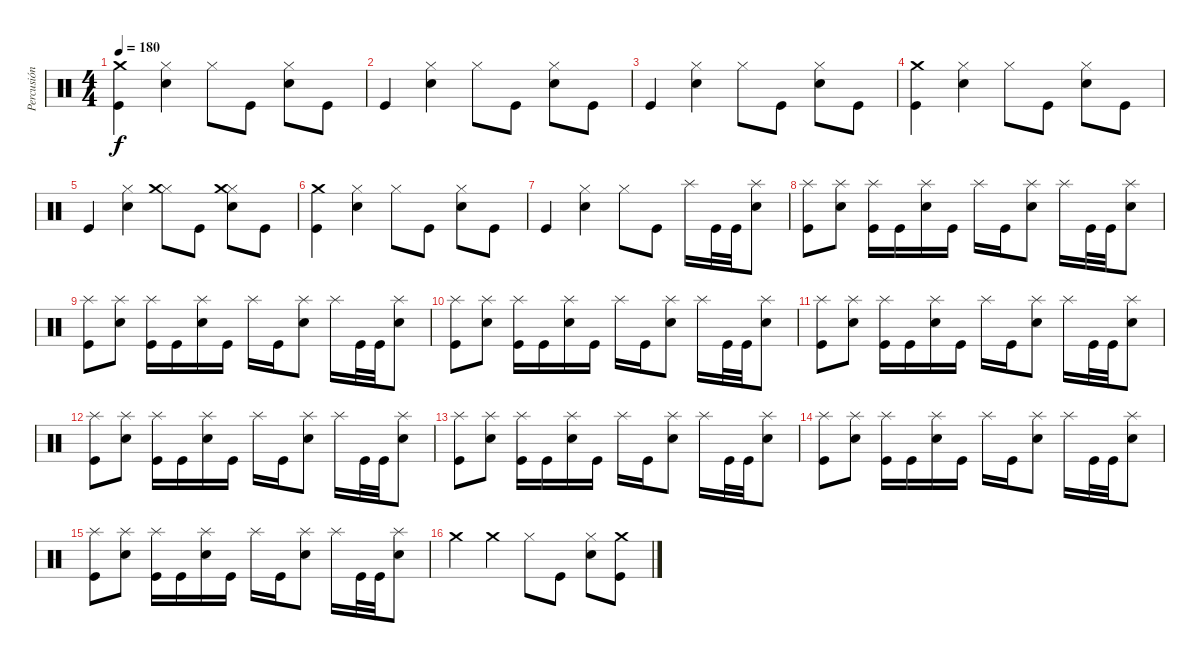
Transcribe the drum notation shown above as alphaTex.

\track ("Percusión" "Percusión") {instrument percussion}
\staff {score}
\articulation defaults
\ts (4 4)
\tempo 180
\clef neutral
\ks c
("Kick (hit)" "Crash medium (hit)").4{dy f} ("Snare (hit) 2" "Hi-Hat (closed)").4 "Hi-Hat (closed)".8 "Kick (hit)".8 ("Snare (hit) 2" "Hi-Hat (closed)").8 "Kick (hit)".8 |
"Kick (hit)".4 ("Snare (hit) 2" "Hi-Hat (closed)").4 "Hi-Hat (closed)".8 "Kick (hit)".8 ("Snare (hit) 2" "Hi-Hat (closed)").8 "Kick (hit)".8 |
"Kick (hit)".4 ("Snare (hit) 2" "Hi-Hat (closed)").4 "Hi-Hat (closed)".8 "Kick (hit)".8 ("Snare (hit) 2" "Hi-Hat (closed)").8 "Kick (hit)".8 |
("Kick (hit)" "Crash medium (hit)").4 ("Snare (hit) 2" "Hi-Hat (closed)").4 "Hi-Hat (closed)".8 "Kick (hit)".8 ("Snare (hit) 2" "Hi-Hat (closed)").8 "Kick (hit)".8 |
"Kick (hit)".4 ("Snare (hit) 2" "Hi-Hat (closed)").4 ("Hi-Hat (closed)" "Crash medium (hit)").8 "Kick (hit)".8 ("Snare (hit) 2" "Hi-Hat (closed)" "Crash medium (hit)").8 "Kick (hit)".8 |
("Kick (hit)" "Crash medium (hit)").4 ("Snare (hit) 2" "Hi-Hat (closed)").4 "Hi-Hat (closed)".8 "Kick (hit)".8 ("Snare (hit) 2" "Hi-Hat (closed)").8 "Kick (hit)".8 |
"Kick (hit)".4 ("Snare (hit) 2" "Hi-Hat (closed)").4 "Hi-Hat (closed)".8 "Kick (hit)".8 "Splash (hit)".16 "Kick (hit)".32 "Kick (hit)".32 ("Splash (hit)" "Electric Snare (hit)").8 |
("Splash (hit)" "Kick (hit)").8 ("Splash (hit)" "Electric Snare (hit)").8 ("Splash (hit)" "Kick (hit)").16 "Kick (hit)".16 ("Splash (hit)" "Electric Snare (hit)").16 "Kick (hit)".16 "Splash (hit)".16 "Kick (hit)".16 ("Splash (hit)" "Electric Snare (hit)").8 "Splash (hit)".16 "Kick (hit)".32 "Kick (hit)".32 ("Splash (hit)" "Electric Snare (hit)").8 |
("Splash (hit)" "Kick (hit)").8 ("Splash (hit)" "Electric Snare (hit)").8 ("Splash (hit)" "Kick (hit)").16 "Kick (hit)".16 ("Splash (hit)" "Electric Snare (hit)").16 "Kick (hit)".16 "Splash (hit)".16 "Kick (hit)".16 ("Splash (hit)" "Electric Snare (hit)").8 "Splash (hit)".16 "Kick (hit)".32 "Kick (hit)".32 ("Splash (hit)" "Electric Snare (hit)").8 |
("Splash (hit)" "Kick (hit)").8 ("Splash (hit)" "Electric Snare (hit)").8 ("Splash (hit)" "Kick (hit)").16 "Kick (hit)".16 ("Splash (hit)" "Electric Snare (hit)").16 "Kick (hit)".16 "Splash (hit)".16 "Kick (hit)".16 ("Splash (hit)" "Electric Snare (hit)").8 "Splash (hit)".16 "Kick (hit)".32 "Kick (hit)".32 ("Splash (hit)" "Electric Snare (hit)").8 |
("Splash (hit)" "Kick (hit)").8 ("Splash (hit)" "Electric Snare (hit)").8 ("Splash (hit)" "Kick (hit)").16 "Kick (hit)".16 ("Splash (hit)" "Electric Snare (hit)").16 "Kick (hit)".16 "Splash (hit)".16 "Kick (hit)".16 ("Splash (hit)" "Electric Snare (hit)").8 "Splash (hit)".16 "Kick (hit)".32 "Kick (hit)".32 ("Splash (hit)" "Electric Snare (hit)").8 |
("Splash (hit)" "Kick (hit)").8 ("Splash (hit)" "Electric Snare (hit)").8 ("Splash (hit)" "Kick (hit)").16 "Kick (hit)".16 ("Splash (hit)" "Electric Snare (hit)").16 "Kick (hit)".16 "Splash (hit)".16 "Kick (hit)".16 ("Splash (hit)" "Electric Snare (hit)").8 "Splash (hit)".16 "Kick (hit)".32 "Kick (hit)".32 ("Splash (hit)" "Electric Snare (hit)").8 |
("Splash (hit)" "Kick (hit)").8 ("Splash (hit)" "Electric Snare (hit)").8 ("Splash (hit)" "Kick (hit)").16 "Kick (hit)".16 ("Splash (hit)" "Electric Snare (hit)").16 "Kick (hit)".16 "Splash (hit)".16 "Kick (hit)".16 ("Splash (hit)" "Electric Snare (hit)").8 "Splash (hit)".16 "Kick (hit)".32 "Kick (hit)".32 ("Splash (hit)" "Electric Snare (hit)").8 |
("Splash (hit)" "Kick (hit)").8 ("Splash (hit)" "Electric Snare (hit)").8 ("Splash (hit)" "Kick (hit)").16 "Kick (hit)".16 ("Splash (hit)" "Electric Snare (hit)").16 "Kick (hit)".16 "Splash (hit)".16 "Kick (hit)".16 ("Splash (hit)" "Electric Snare (hit)").8 "Splash (hit)".16 "Kick (hit)".32 "Kick (hit)".32 ("Splash (hit)" "Electric Snare (hit)").8 |
("Splash (hit)" "Kick (hit)").8 ("Splash (hit)" "Electric Snare (hit)").8 ("Splash (hit)" "Kick (hit)").16 "Kick (hit)".16 ("Splash (hit)" "Electric Snare (hit)").16 "Kick (hit)".16 "Splash (hit)".16 "Kick (hit)".16 ("Splash (hit)" "Electric Snare (hit)").8 "Splash (hit)".16 "Kick (hit)".32 "Kick (hit)".32 ("Splash (hit)" "Electric Snare (hit)").8 |
"Crash medium (hit)".4 "Crash medium (hit)".4 "Hi-Hat (closed)".8 "Kick (hit)".8 ("Snare (hit) 2" "Hi-Hat (closed)").8 ("Kick (hit)" "Crash medium (hit)").8
